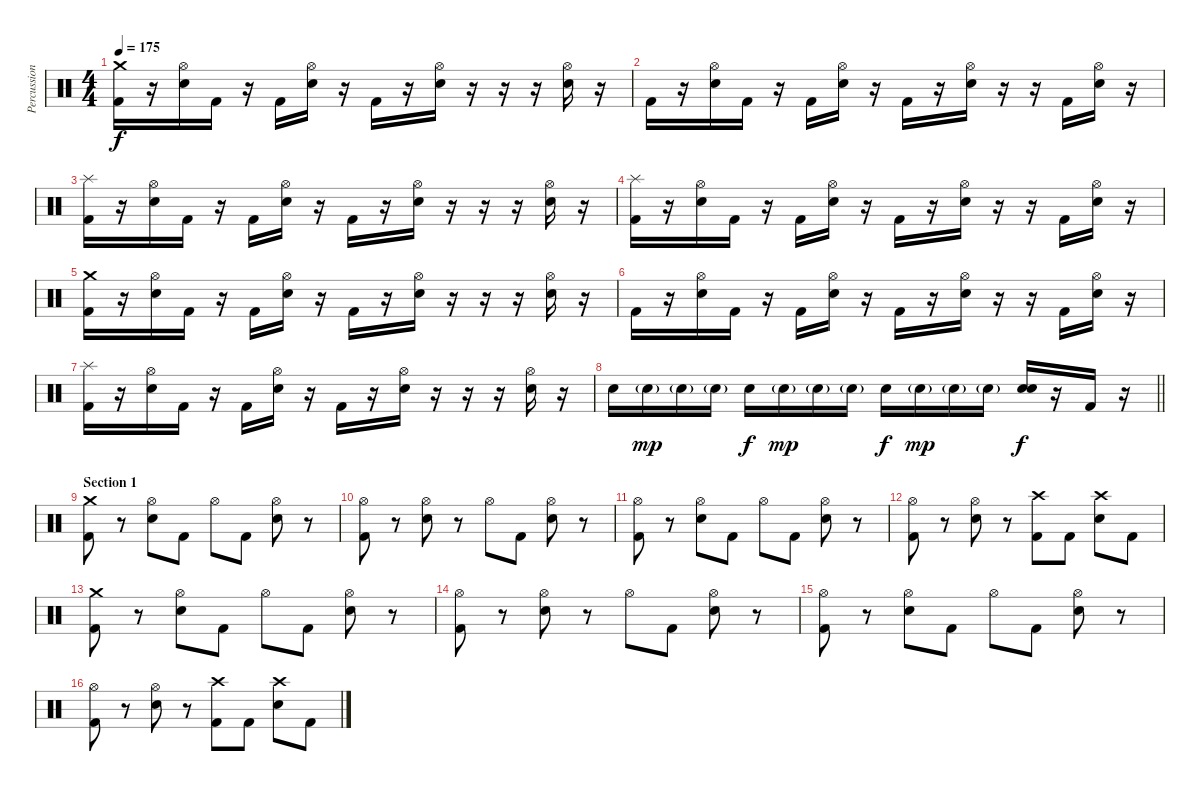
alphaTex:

\track ("Percussion" "Percussion") {instrument percussion}
\staff {score}
\articulation defaults
\ts (4 4)
\tempo 175
\clef neutral
\ks c
("Crash medium (hit)" "Kick (hit) 2").16{dy f} r.16 ("Hi-Hat (open)" "Electric Snare (hit)").16 "Kick (hit) 2".16 r.16 "Kick (hit) 2".16 ("Hi-Hat (open)" "Electric Snare (hit)").16 r.16 "Kick (hit) 2".16 r.16 ("Hi-Hat (open)" "Electric Snare (hit)").16 r.16 r.16 r.16 ("Hi-Hat (open)" "Electric Snare (hit)").16 r.16 |
"Kick (hit) 2".16 r.16 ("Hi-Hat (open)" "Electric Snare (hit)").16 "Kick (hit) 2".16 r.16 "Kick (hit) 2".16 ("Hi-Hat (open)" "Electric Snare (hit)").16 r.16 "Kick (hit) 2".16 r.16 ("Hi-Hat (open)" "Electric Snare (hit)").16 r.16 r.16 "Kick (hit) 2".16 ("Hi-Hat (open)" "Electric Snare (hit)").16 r.16 |
("Splash (hit)" "Kick (hit) 2").16 r.16 ("Hi-Hat (open)" "Electric Snare (hit)").16 "Kick (hit) 2".16 r.16 "Kick (hit) 2".16 ("Hi-Hat (open)" "Electric Snare (hit)").16 r.16 "Kick (hit) 2".16 r.16 ("Hi-Hat (open)" "Electric Snare (hit)").16 r.16 r.16 r.16 ("Hi-Hat (open)" "Electric Snare (hit)").16 r.16 |
("Splash (hit)" "Kick (hit) 2").16 r.16 ("Hi-Hat (open)" "Electric Snare (hit)").16 "Kick (hit) 2".16 r.16 "Kick (hit) 2".16 ("Hi-Hat (open)" "Electric Snare (hit)").16 r.16 "Kick (hit) 2".16 r.16 ("Hi-Hat (open)" "Electric Snare (hit)").16 r.16 r.16 "Kick (hit) 2".16 ("Hi-Hat (open)" "Electric Snare (hit)").16 r.16 |
("Crash medium (hit)" "Kick (hit) 2").16 r.16 ("Hi-Hat (open)" "Electric Snare (hit)").16 "Kick (hit) 2".16 r.16 "Kick (hit) 2".16 ("Hi-Hat (open)" "Electric Snare (hit)").16 r.16 "Kick (hit) 2".16 r.16 ("Hi-Hat (open)" "Electric Snare (hit)").16 r.16 r.16 r.16 ("Hi-Hat (open)" "Electric Snare (hit)").16 r.16 |
"Kick (hit) 2".16 r.16 ("Hi-Hat (open)" "Electric Snare (hit)").16 "Kick (hit) 2".16 r.16 "Kick (hit) 2".16 ("Hi-Hat (open)" "Electric Snare (hit)").16 r.16 "Kick (hit) 2".16 r.16 ("Hi-Hat (open)" "Electric Snare (hit)").16 r.16 r.16 "Kick (hit) 2".16 ("Hi-Hat (open)" "Electric Snare (hit)").16 r.16 |
("Splash (hit)" "Kick (hit) 2").16 r.16 ("Hi-Hat (open)" "Electric Snare (hit)").16 "Kick (hit) 2".16 r.16 "Kick (hit) 2".16 ("Hi-Hat (open)" "Electric Snare (hit)").16 r.16 "Kick (hit) 2".16 r.16 ("Hi-Hat (open)" "Electric Snare (hit)").16 r.16 r.16 r.16 ("Hi-Hat (open)" "Electric Snare (hit)").16 r.16 |
\barLineRight lightlight "Electric Snare (hit)".16 "Electric Snare (hit)"{g}.16{dy mp} "Electric Snare (hit)"{g}.16 "Electric Snare (hit)"{g}.16 "Electric Snare (hit)".16{dy f} "Electric Snare (hit)"{g}.16{dy mp} "Electric Snare (hit)"{g}.16 "Electric Snare (hit)"{g}.16 "Electric Snare (hit)".16{dy f} "Electric Snare (hit)"{g}.16{dy mp} "Electric Snare (hit)"{g}.16 "Electric Snare (hit)"{g}.16
("Electric Snare (hit)" "Electric Snare (hit)").16{bd 60 dy f} r.16 "Kick (hit) 2".16 r.16 |
\section ("" "Section 1")
("Crash medium (hit)" "Kick (hit) 2").8 r.8 ("Hi-Hat (open)" "Electric Snare (hit)").8 "Kick (hit) 2".8 "Hi-Hat (open)".8 "Kick (hit) 2".8 ("Hi-Hat (open)" "Electric Snare (hit)").8 r.8 |
("Hi-Hat (open)" "Kick (hit) 2").8 r.8 ("Hi-Hat (open)" "Electric Snare (hit)").8 r.8 "Hi-Hat (open)".8 "Kick (hit) 2".8 ("Hi-Hat (open)" "Electric Snare (hit)").8 r.8 |
("Hi-Hat (open)" "Kick (hit) 2").8 r.8 ("Hi-Hat (open)" "Electric Snare (hit)").8 "Kick (hit) 2".8 "Hi-Hat (open)".8 "Kick (hit) 2".8 ("Hi-Hat (open)" "Electric Snare (hit)").8 r.8 |
("Hi-Hat (open)" "Kick (hit) 2").8 r.8 ("Hi-Hat (open)" "Electric Snare (hit)").8 r.8 ("Crash high (hit)" "Kick (hit) 2").8 "Kick (hit) 2".8 ("Crash high (hit)" "Electric Snare (hit)").8 "Kick (hit) 2".8 |
("Crash medium (hit)" "Kick (hit) 2").8 r.8 ("Hi-Hat (open)" "Electric Snare (hit)").8 "Kick (hit) 2".8 "Hi-Hat (open)".8 "Kick (hit) 2".8 ("Hi-Hat (open)" "Electric Snare (hit)").8 r.8 |
("Hi-Hat (open)" "Kick (hit) 2").8 r.8 ("Hi-Hat (open)" "Electric Snare (hit)").8 r.8 "Hi-Hat (open)".8 "Kick (hit) 2".8 ("Hi-Hat (open)" "Electric Snare (hit)").8 r.8 |
("Hi-Hat (open)" "Kick (hit) 2").8 r.8 ("Hi-Hat (open)" "Electric Snare (hit)").8 "Kick (hit) 2".8 "Hi-Hat (open)".8 "Kick (hit) 2".8 ("Hi-Hat (open)" "Electric Snare (hit)").8 r.8 |
("Hi-Hat (open)" "Kick (hit) 2").8 r.8 ("Hi-Hat (open)" "Electric Snare (hit)").8 r.8 ("Crash high (hit)" "Kick (hit) 2").8 "Kick (hit) 2".8 ("Crash high (hit)" "Electric Snare (hit)").8 "Kick (hit) 2".8
